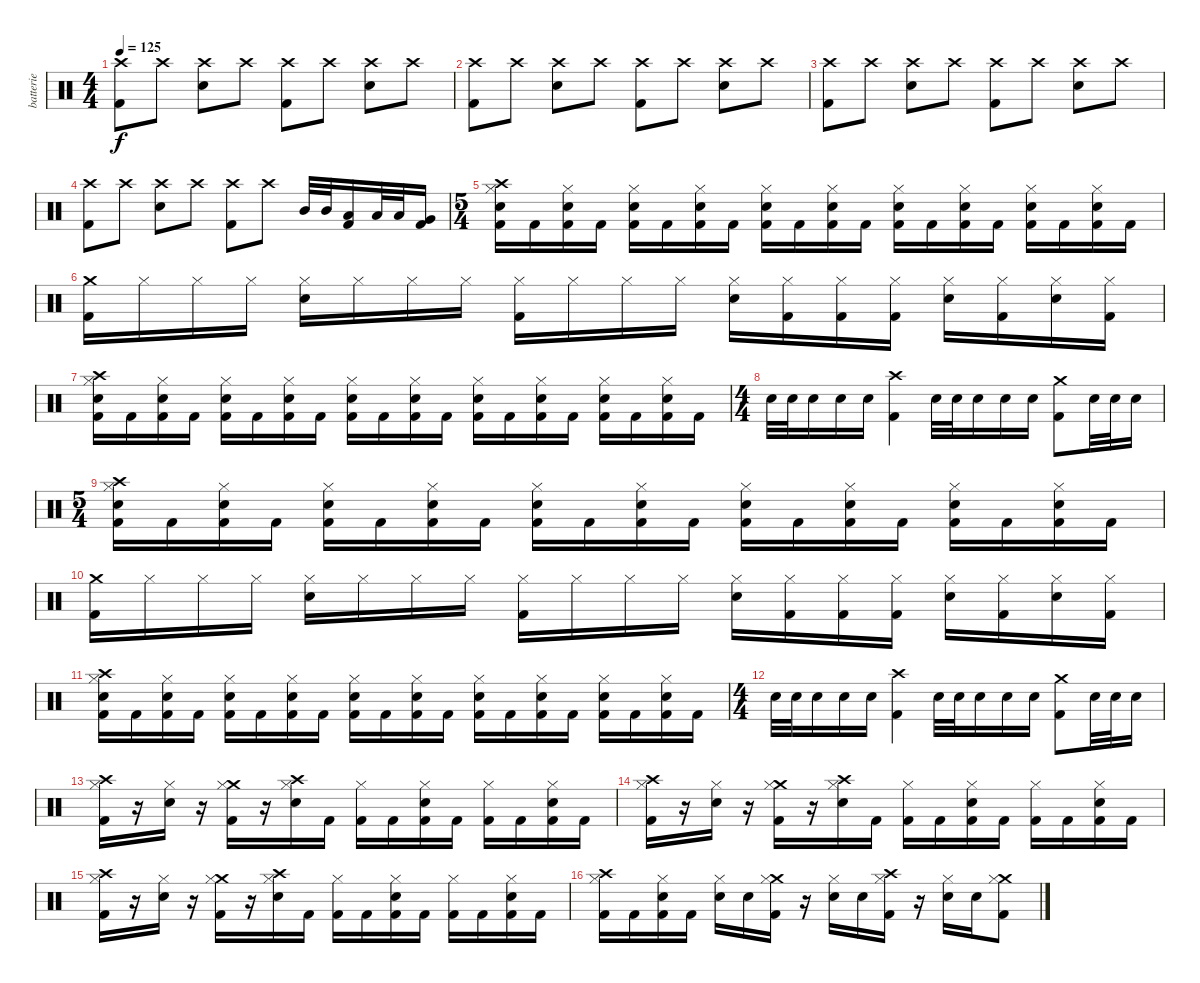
\track ("batterie" "batterie") {instrument percussion}
\staff {score}
\articulation defaults
\ts (4 4)
\tempo 125
\clef neutral
\ks c
("Kick (hit) 2" "Crash high (hit)").8{dy f} "Crash high (hit)".8 ("Electric Snare (hit)" "Crash high (hit)").8 "Crash high (hit)".8 ("Kick (hit) 2" "Crash high (hit)").8 "Crash high (hit)".8 ("Electric Snare (hit)" "Crash high (hit)").8 "Crash high (hit)".8 |
("Kick (hit) 2" "Crash high (hit)").8 "Crash high (hit)".8 ("Electric Snare (hit)" "Crash high (hit)").8 "Crash high (hit)".8 ("Kick (hit) 2" "Crash high (hit)").8 "Crash high (hit)".8 ("Electric Snare (hit)" "Crash high (hit)").8 "Crash high (hit)".8 |
("Kick (hit) 2" "Crash high (hit)").8 "Crash high (hit)".8 ("Electric Snare (hit)" "Crash high (hit)").8 "Crash high (hit)".8 ("Kick (hit) 2" "Crash high (hit)").8 "Crash high (hit)".8 ("Electric Snare (hit)" "Crash high (hit)").8 "Crash high (hit)".8 |
("Kick (hit) 2" "Crash high (hit)").8 "Crash high (hit)".8 ("Electric Snare (hit)" "Crash high (hit)").8 "Crash high (hit)".8 ("Kick (hit) 2" "Crash high (hit)").8 "Crash high (hit)".8 "Mid Tom (hit)".32 "Mid Tom (hit)".32 ("Low Tom (hit)" "Kick (hit) 2").16 "Low Tom (hit)".32 "Low Tom (hit)".32 ("Very Low Tom (hit)" "Kick (hit) 2").16 |
\ts (5 4)
("Crash high (hit)" "Electric Snare (hit)" "Kick (hit) 2" "Hi-Hat (closed)").16 "Kick (hit) 2".16 ("Electric Snare (hit)" "Kick (hit) 2" "Hi-Hat (closed)").16 "Kick (hit) 2".16 ("Electric Snare (hit)" "Kick (hit) 2" "Hi-Hat (closed)").16 "Kick (hit) 2".16 ("Electric Snare (hit)" "Kick (hit) 2" "Hi-Hat (closed)").16 "Kick (hit) 2".16 ("Electric Snare (hit)" "Kick (hit) 2" "Hi-Hat (closed)").16 "Kick (hit) 2".16 ("Electric Snare (hit)" "Kick (hit) 2" "Hi-Hat (closed)").16 "Kick (hit) 2".16 ("Electric Snare (hit)" "Kick (hit) 2" "Hi-Hat (closed)").16 "Kick (hit) 2".16 ("Electric Snare (hit)" "Kick (hit) 2" "Hi-Hat (closed)").16 "Kick (hit) 2".16 ("Electric Snare (hit)" "Kick (hit) 2" "Hi-Hat (closed)").16 "Kick (hit) 2".16 ("Electric Snare (hit)" "Kick (hit) 2" "Hi-Hat (closed)").16 "Kick (hit) 2".16 |
("Crash medium (hit)" "Kick (hit) 2").16 "Hi-Hat (closed)".16 "Hi-Hat (closed)".16 "Hi-Hat (closed)".16 ("Electric Snare (hit)" "Hi-Hat (closed)").16 "Hi-Hat (closed)".16 "Hi-Hat (closed)".16 "Hi-Hat (closed)".16 ("Kick (hit) 2" "Hi-Hat (closed)").16 "Hi-Hat (closed)".16 "Hi-Hat (closed)".16 "Hi-Hat (closed)".16 ("Electric Snare (hit)" "Hi-Hat (closed)").16 ("Kick (hit) 2" "Hi-Hat (closed)").16 ("Kick (hit) 2" "Hi-Hat (closed)").16 ("Kick (hit) 2" "Hi-Hat (closed)").16 ("Electric Snare (hit)" "Hi-Hat (closed)").16 ("Kick (hit) 2" "Hi-Hat (closed)").16 ("Electric Snare (hit)" "Hi-Hat (closed)").16 ("Kick (hit) 2" "Hi-Hat (closed)").16 |
("Crash high (hit)" "Electric Snare (hit)" "Kick (hit) 2" "Hi-Hat (closed)").16 "Kick (hit) 2".16 ("Electric Snare (hit)" "Kick (hit) 2" "Hi-Hat (closed)").16 "Kick (hit) 2".16 ("Electric Snare (hit)" "Kick (hit) 2" "Hi-Hat (closed)").16 "Kick (hit) 2".16 ("Electric Snare (hit)" "Kick (hit) 2" "Hi-Hat (closed)").16 "Kick (hit) 2".16 ("Electric Snare (hit)" "Kick (hit) 2" "Hi-Hat (closed)").16 "Kick (hit) 2".16 ("Electric Snare (hit)" "Kick (hit) 2" "Hi-Hat (closed)").16 "Kick (hit) 2".16 ("Electric Snare (hit)" "Kick (hit) 2" "Hi-Hat (closed)").16 "Kick (hit) 2".16 ("Electric Snare (hit)" "Kick (hit) 2" "Hi-Hat (closed)").16 "Kick (hit) 2".16 ("Electric Snare (hit)" "Kick (hit) 2" "Hi-Hat (closed)").16 "Kick (hit) 2".16 ("Electric Snare (hit)" "Kick (hit) 2" "Hi-Hat (closed)").16 "Kick (hit) 2".16 |
\ts (4 4)
"Electric Snare (hit)".32 "Electric Snare (hit)".32 "Electric Snare (hit)".16 "Electric Snare (hit)".16 "Electric Snare (hit)".16 ("Crash high (hit)" "Kick (hit) 2").4 "Electric Snare (hit)".32 "Electric Snare (hit)".32 "Electric Snare (hit)".16 "Electric Snare (hit)".16 "Electric Snare (hit)".16 ("Crash medium (hit)" "Kick (hit) 2").8 "Electric Snare (hit)".32 "Electric Snare (hit)".32 "Electric Snare (hit)".16 |
\ts (5 4)
("Crash high (hit)" "Electric Snare (hit)" "Kick (hit) 2" "Hi-Hat (closed)").16 "Kick (hit) 2".16 ("Electric Snare (hit)" "Kick (hit) 2" "Hi-Hat (closed)").16 "Kick (hit) 2".16 ("Electric Snare (hit)" "Kick (hit) 2" "Hi-Hat (closed)").16 "Kick (hit) 2".16 ("Electric Snare (hit)" "Kick (hit) 2" "Hi-Hat (closed)").16 "Kick (hit) 2".16 ("Electric Snare (hit)" "Kick (hit) 2" "Hi-Hat (closed)").16 "Kick (hit) 2".16 ("Electric Snare (hit)" "Kick (hit) 2" "Hi-Hat (closed)").16 "Kick (hit) 2".16 ("Electric Snare (hit)" "Kick (hit) 2" "Hi-Hat (closed)").16 "Kick (hit) 2".16 ("Electric Snare (hit)" "Kick (hit) 2" "Hi-Hat (closed)").16 "Kick (hit) 2".16 ("Electric Snare (hit)" "Kick (hit) 2" "Hi-Hat (closed)").16 "Kick (hit) 2".16 ("Electric Snare (hit)" "Kick (hit) 2" "Hi-Hat (closed)").16 "Kick (hit) 2".16 |
("Crash medium (hit)" "Kick (hit) 2").16 "Hi-Hat (closed)".16 "Hi-Hat (closed)".16 "Hi-Hat (closed)".16 ("Electric Snare (hit)" "Hi-Hat (closed)").16 "Hi-Hat (closed)".16 "Hi-Hat (closed)".16 "Hi-Hat (closed)".16 ("Kick (hit) 2" "Hi-Hat (closed)").16 "Hi-Hat (closed)".16 "Hi-Hat (closed)".16 "Hi-Hat (closed)".16 ("Electric Snare (hit)" "Hi-Hat (closed)").16 ("Kick (hit) 2" "Hi-Hat (closed)").16 ("Kick (hit) 2" "Hi-Hat (closed)").16 ("Kick (hit) 2" "Hi-Hat (closed)").16 ("Electric Snare (hit)" "Hi-Hat (closed)").16 ("Kick (hit) 2" "Hi-Hat (closed)").16 ("Electric Snare (hit)" "Hi-Hat (closed)").16 ("Kick (hit) 2" "Hi-Hat (closed)").16 |
("Crash high (hit)" "Electric Snare (hit)" "Kick (hit) 2" "Hi-Hat (closed)").16 "Kick (hit) 2".16 ("Electric Snare (hit)" "Kick (hit) 2" "Hi-Hat (closed)").16 "Kick (hit) 2".16 ("Electric Snare (hit)" "Kick (hit) 2" "Hi-Hat (closed)").16 "Kick (hit) 2".16 ("Electric Snare (hit)" "Kick (hit) 2" "Hi-Hat (closed)").16 "Kick (hit) 2".16 ("Electric Snare (hit)" "Kick (hit) 2" "Hi-Hat (closed)").16 "Kick (hit) 2".16 ("Electric Snare (hit)" "Kick (hit) 2" "Hi-Hat (closed)").16 "Kick (hit) 2".16 ("Electric Snare (hit)" "Kick (hit) 2" "Hi-Hat (closed)").16 "Kick (hit) 2".16 ("Electric Snare (hit)" "Kick (hit) 2" "Hi-Hat (closed)").16 "Kick (hit) 2".16 ("Electric Snare (hit)" "Kick (hit) 2" "Hi-Hat (closed)").16 "Kick (hit) 2".16 ("Electric Snare (hit)" "Kick (hit) 2" "Hi-Hat (closed)").16 "Kick (hit) 2".16 |
\ts (4 4)
"Electric Snare (hit)".32 "Electric Snare (hit)".32 "Electric Snare (hit)".16 "Electric Snare (hit)".16 "Electric Snare (hit)".16 ("Crash high (hit)" "Kick (hit) 2").4 "Electric Snare (hit)".32 "Electric Snare (hit)".32 "Electric Snare (hit)".16 "Electric Snare (hit)".16 "Electric Snare (hit)".16 ("Crash medium (hit)" "Kick (hit) 2").8 "Electric Snare (hit)".32 "Electric Snare (hit)".32 "Electric Snare (hit)".16 |
("Crash high (hit)" "Kick (hit) 2" "Hi-Hat (closed)").16 r.16 ("Electric Snare (hit)" "Hi-Hat (closed)").16 r.16 ("Crash medium (hit)" "Kick (hit) 2" "Hi-Hat (closed)").16 r.16 ("Crash high (hit)" "Electric Snare (hit)" "Hi-Hat (closed)").16 "Kick (hit) 2".16 ("Kick (hit) 2" "Hi-Hat (closed)").16 "Kick (hit) 2".16 ("Electric Snare (hit)" "Kick (hit) 2" "Hi-Hat (closed)").16 "Kick (hit) 2".16 ("Kick (hit) 2" "Hi-Hat (closed)").16 "Kick (hit) 2".16 ("Electric Snare (hit)" "Kick (hit) 2" "Hi-Hat (closed)").16 "Kick (hit) 2".16 |
("Crash high (hit)" "Kick (hit) 2" "Hi-Hat (closed)").16 r.16 ("Electric Snare (hit)" "Hi-Hat (closed)").16 r.16 ("Crash medium (hit)" "Kick (hit) 2" "Hi-Hat (closed)").16 r.16 ("Crash high (hit)" "Electric Snare (hit)" "Hi-Hat (closed)").16 "Kick (hit) 2".16 ("Kick (hit) 2" "Hi-Hat (closed)").16 "Kick (hit) 2".16 ("Electric Snare (hit)" "Kick (hit) 2" "Hi-Hat (closed)").16 "Kick (hit) 2".16 ("Kick (hit) 2" "Hi-Hat (closed)").16 "Kick (hit) 2".16 ("Electric Snare (hit)" "Kick (hit) 2" "Hi-Hat (closed)").16 "Kick (hit) 2".16 |
("Crash high (hit)" "Kick (hit) 2" "Hi-Hat (closed)").16 r.16 ("Electric Snare (hit)" "Hi-Hat (closed)").16 r.16 ("Crash medium (hit)" "Kick (hit) 2" "Hi-Hat (closed)").16 r.16 ("Crash high (hit)" "Electric Snare (hit)" "Hi-Hat (closed)").16 "Kick (hit) 2".16 ("Kick (hit) 2" "Hi-Hat (closed)").16 "Kick (hit) 2".16 ("Electric Snare (hit)" "Kick (hit) 2" "Hi-Hat (closed)").16 "Kick (hit) 2".16 ("Kick (hit) 2" "Hi-Hat (closed)").16 "Kick (hit) 2".16 ("Electric Snare (hit)" "Kick (hit) 2" "Hi-Hat (closed)").16 "Kick (hit) 2".16 |
("Crash high (hit)" "Kick (hit) 2" "Hi-Hat (closed)").16 "Kick (hit) 2".16 ("Electric Snare (hit)" "Kick (hit) 2" "Hi-Hat (closed)").16 "Kick (hit) 2".16 ("Electric Snare (hit)" "Hi-Hat (closed)").16 "Electric Snare (hit)".16 ("Crash medium (hit)" "Kick (hit) 2" "Hi-Hat (closed)").16 r.16 ("Electric Snare (hit)" "Hi-Hat (closed)").16 "Electric Snare (hit)".16 ("Crash high (hit)" "Kick (hit) 2" "Hi-Hat (closed)").16 r.16 ("Electric Snare (hit)" "Hi-Hat (closed)").16 "Electric Snare (hit)".16 ("Crash medium (hit)" "Kick (hit) 2" "Hi-Hat (closed)").8
